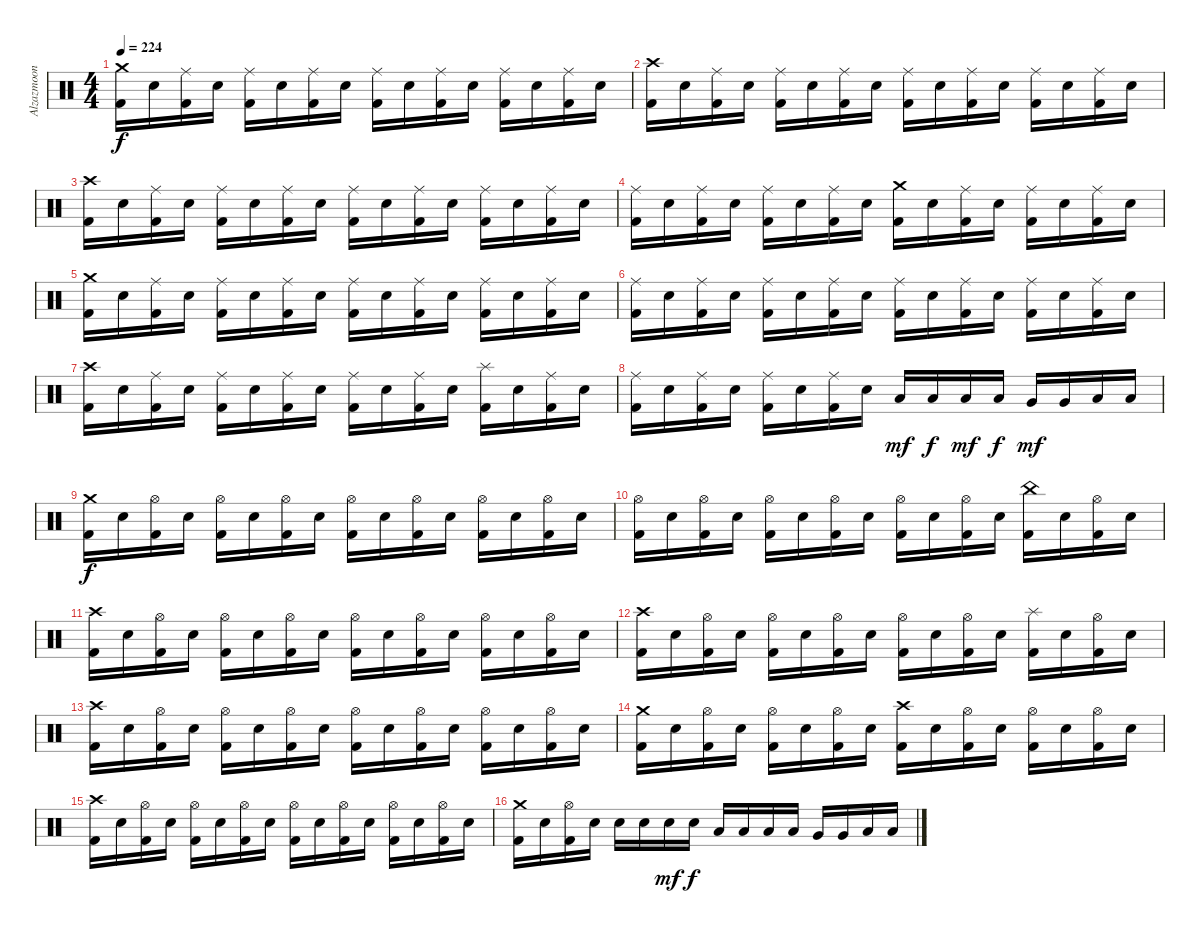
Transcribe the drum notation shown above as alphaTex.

\track ("Alzazmoon" "Alzazmoon") {instrument percussion}
\staff {score}
\articulation defaults
\ts (4 4)
\tempo 224
\clef neutral
\ks c
("Crash medium (hit)" "Kick (hit) 2").16{dy f} "Snare (hit) 2".16 ("Ride (middle)" "Kick (hit) 2").16 "Snare (hit) 2".16 ("Ride (middle)" "Kick (hit) 2").16 "Snare (hit) 2".16 ("Ride (middle)" "Kick (hit) 2").16 "Snare (hit) 2".16 ("Ride (middle)" "Kick (hit) 2").16 "Snare (hit) 2".16 ("Ride (middle)" "Kick (hit) 2").16 "Snare (hit) 2".16 ("Ride (middle)" "Kick (hit) 2").16 "Snare (hit) 2".16 ("Ride (middle)" "Kick (hit) 2").16 "Snare (hit) 2".16 |
("Crash high (hit)" "Kick (hit) 2").16 "Snare (hit) 2".16 ("Ride (middle)" "Kick (hit) 2").16 "Snare (hit) 2".16 ("Ride (middle)" "Kick (hit) 2").16 "Snare (hit) 2".16 ("Ride (middle)" "Kick (hit) 2").16 "Snare (hit) 2".16 ("Ride (middle)" "Kick (hit) 2").16 "Snare (hit) 2".16 ("Ride (middle)" "Kick (hit) 2").16 "Snare (hit) 2".16 ("Ride (middle)" "Kick (hit) 2").16 "Snare (hit) 2".16 ("Ride (middle)" "Kick (hit) 2").16 "Snare (hit) 2".16 |
("Crash high (hit)" "Kick (hit) 2").16 "Snare (hit) 2".16 ("Ride (middle)" "Kick (hit) 2").16 "Snare (hit) 2".16 ("Ride (middle)" "Kick (hit) 2").16 "Snare (hit) 2".16 ("Ride (middle)" "Kick (hit) 2").16 "Snare (hit) 2".16 ("Ride (middle)" "Kick (hit) 2").16 "Snare (hit) 2".16 ("Ride (middle)" "Kick (hit) 2").16 "Snare (hit) 2".16 ("Ride (middle)" "Kick (hit) 2").16 "Snare (hit) 2".16 ("Ride (middle)" "Kick (hit) 2").16 "Snare (hit) 2".16 |
("Ride (middle)" "Kick (hit) 2").16 "Snare (hit) 2".16 ("Ride (middle)" "Kick (hit) 2").16 "Snare (hit) 2".16 ("Ride (middle)" "Kick (hit) 2").16 "Snare (hit) 2".16 ("Ride (middle)" "Kick (hit) 2").16 "Snare (hit) 2".16 ("Crash medium (hit)" "Kick (hit) 2").16 "Snare (hit) 2".16 ("Ride (middle)" "Kick (hit) 2").16 "Snare (hit) 2".16 ("Ride (middle)" "Kick (hit) 2").16 "Snare (hit) 2".16 ("Ride (middle)" "Kick (hit) 2").16 "Snare (hit) 2".16 |
("Crash medium (hit)" "Kick (hit) 2").16 "Snare (hit) 2".16 ("Ride (middle)" "Kick (hit) 2").16 "Snare (hit) 2".16 ("Ride (middle)" "Kick (hit) 2").16 "Snare (hit) 2".16 ("Ride (middle)" "Kick (hit) 2").16 "Snare (hit) 2".16 ("Ride (middle)" "Kick (hit) 2").16 "Snare (hit) 2".16 ("Ride (middle)" "Kick (hit) 2").16 "Snare (hit) 2".16 ("Ride (middle)" "Kick (hit) 2").16 "Snare (hit) 2".16 ("Ride (middle)" "Kick (hit) 2").16 "Snare (hit) 2".16 |
("Ride (middle)" "Kick (hit) 2").16 "Snare (hit) 2".16 ("Ride (middle)" "Kick (hit) 2").16 "Snare (hit) 2".16 ("Ride (middle)" "Kick (hit) 2").16 "Snare (hit) 2".16 ("Ride (middle)" "Kick (hit) 2").16 "Snare (hit) 2".16 ("Ride (middle)" "Kick (hit) 2").16 "Snare (hit) 2".16 ("Ride (middle)" "Kick (hit) 2").16 "Snare (hit) 2".16 ("Ride (middle)" "Kick (hit) 2").16 "Snare (hit) 2".16 ("Ride (middle)" "Kick (hit) 2").16 "Snare (hit) 2".16 |
("Crash high (hit)" "Kick (hit) 2").16 "Snare (hit) 2".16 ("Ride (middle)" "Kick (hit) 2").16 "Snare (hit) 2".16 ("Ride (middle)" "Kick (hit) 2").16 "Snare (hit) 2".16 ("Ride (middle)" "Kick (hit) 2").16 "Snare (hit) 2".16 ("Ride (middle)" "Kick (hit) 2").16 "Snare (hit) 2".16 ("Ride (middle)" "Kick (hit) 2").16 "Snare (hit) 2".16 ("Splash (hit)" "Kick (hit) 2").16 "Snare (hit) 2".16 ("Ride (middle)" "Kick (hit) 2").16 "Snare (hit) 2".16 |
("Ride (middle)" "Kick (hit) 2").16 "Snare (hit) 2".16 ("Ride (middle)" "Kick (hit) 2").16 "Snare (hit) 2".16 ("Ride (middle)" "Kick (hit) 2").16 "Snare (hit) 2".16 ("Ride (middle)" "Kick (hit) 2").16 "Snare (hit) 2".16 "Low Tom (hit)".16{dy mf} "Low Tom (hit)".16{dy f} "Low Tom (hit)".16{dy mf} "Low Tom (hit)".16{dy f} "Very Low Tom (hit)".16{dy mf} "Very Low Tom (hit)".16 "Low Floor Tom (hit)".16 "Low Floor Tom (hit)".16 |
("Crash medium (hit)" "Kick (hit) 2").16{dy f} "Snare (hit) 2".16 ("Hi-Hat (open)" "Kick (hit) 2").16 "Snare (hit) 2".16 ("Hi-Hat (open)" "Kick (hit) 2").16 "Snare (hit) 2".16 ("Hi-Hat (open)" "Kick (hit) 2").16 "Snare (hit) 2".16 ("Hi-Hat (open)" "Kick (hit) 2").16 "Snare (hit) 2".16 ("Hi-Hat (open)" "Kick (hit) 2").16 "Snare (hit) 2".16 ("Hi-Hat (open)" "Kick (hit) 2").16 "Snare (hit) 2".16 ("Hi-Hat (open)" "Kick (hit) 2").16 "Snare (hit) 2".16 |
("Hi-Hat (open)" "Kick (hit) 2").16 "Snare (hit) 2".16 ("Hi-Hat (open)" "Kick (hit) 2").16 "Snare (hit) 2".16 ("Hi-Hat (open)" "Kick (hit) 2").16 "Snare (hit) 2".16 ("Hi-Hat (open)" "Kick (hit) 2").16 "Snare (hit) 2".16 ("Hi-Hat (open)" "Kick (hit) 2").16 "Snare (hit) 2".16 ("Hi-Hat (open)" "Kick (hit) 2").16 "Snare (hit) 2".16 ("China (hit)" "Kick (hit) 2").16 "Snare (hit) 2".16 ("Hi-Hat (open)" "Kick (hit) 2").16 "Snare (hit) 2".16 |
("Crash high (hit)" "Kick (hit) 2").16 "Snare (hit) 2".16 ("Hi-Hat (open)" "Kick (hit) 2").16 "Snare (hit) 2".16 ("Hi-Hat (open)" "Kick (hit) 2").16 "Snare (hit) 2".16 ("Hi-Hat (open)" "Kick (hit) 2").16 "Snare (hit) 2".16 ("Hi-Hat (open)" "Kick (hit) 2").16 "Snare (hit) 2".16 ("Hi-Hat (open)" "Kick (hit) 2").16 "Snare (hit) 2".16 ("Hi-Hat (open)" "Kick (hit) 2").16 "Snare (hit) 2".16 ("Hi-Hat (open)" "Kick (hit) 2").16 "Snare (hit) 2".16 |
("Crash high (hit)" "Kick (hit) 2").16 "Snare (hit) 2".16 ("Hi-Hat (open)" "Kick (hit) 2").16 "Snare (hit) 2".16 ("Hi-Hat (open)" "Kick (hit) 2").16 "Snare (hit) 2".16 ("Hi-Hat (open)" "Kick (hit) 2").16 "Snare (hit) 2".16 ("Hi-Hat (open)" "Kick (hit) 2").16 "Snare (hit) 2".16 ("Hi-Hat (open)" "Kick (hit) 2").16 "Snare (hit) 2".16 ("Splash (hit)" "Kick (hit) 2").16 "Snare (hit) 2".16 ("Hi-Hat (open)" "Kick (hit) 2").16 "Snare (hit) 2".16 |
("Crash high (hit)" "Kick (hit) 2").16 "Snare (hit) 2".16 ("Hi-Hat (open)" "Kick (hit) 2").16 "Snare (hit) 2".16 ("Hi-Hat (open)" "Kick (hit) 2").16 "Snare (hit) 2".16 ("Hi-Hat (open)" "Kick (hit) 2").16 "Snare (hit) 2".16 ("Hi-Hat (open)" "Kick (hit) 2").16 "Snare (hit) 2".16 ("Hi-Hat (open)" "Kick (hit) 2").16 "Snare (hit) 2".16 ("Hi-Hat (open)" "Kick (hit) 2").16 "Snare (hit) 2".16 ("Hi-Hat (open)" "Kick (hit) 2").16 "Snare (hit) 2".16 |
("Crash medium (hit)" "Kick (hit) 2").16 "Snare (hit) 2".16 ("Hi-Hat (open)" "Kick (hit) 2").16 "Snare (hit) 2".16 ("Hi-Hat (open)" "Kick (hit) 2").16 "Snare (hit) 2".16 ("Hi-Hat (open)" "Kick (hit) 2").16 "Snare (hit) 2".16 ("Crash high (hit)" "Kick (hit) 2").16 "Snare (hit) 2".16 ("Hi-Hat (open)" "Kick (hit) 2").16 "Snare (hit) 2".16 ("Hi-Hat (open)" "Kick (hit) 2").16 "Snare (hit) 2".16 ("Hi-Hat (open)" "Kick (hit) 2").16 "Snare (hit) 2".16 |
("Crash high (hit)" "Kick (hit) 2").16 "Snare (hit) 2".16 ("Hi-Hat (open)" "Kick (hit) 2").16 "Snare (hit) 2".16 ("Hi-Hat (open)" "Kick (hit) 2").16 "Snare (hit) 2".16 ("Hi-Hat (open)" "Kick (hit) 2").16 "Snare (hit) 2".16 ("Hi-Hat (open)" "Kick (hit) 2").16 "Snare (hit) 2".16 ("Hi-Hat (open)" "Kick (hit) 2").16 "Snare (hit) 2".16 ("Hi-Hat (open)" "Kick (hit) 2").16 "Snare (hit) 2".16 ("Hi-Hat (open)" "Kick (hit) 2").16 "Snare (hit) 2".16 |
("Crash medium (hit)" "Kick (hit) 2").16 "Snare (hit) 2".16 ("Hi-Hat (open)" "Kick (hit) 2").16 "Snare (hit) 2".16 "Snare (hit) 2".16 "Snare (hit) 2".16 "Snare (hit) 2".16{dy mf} "Snare (hit) 2".16{dy f} "Low Tom (hit)".16 "Low Tom (hit)".16 "Low Tom (hit)".16 "Low Tom (hit)".16 "Very Low Tom (hit)".16 "Very Low Tom (hit)".16 "Low Floor Tom (hit)".16 "Low Floor Tom (hit)".16
